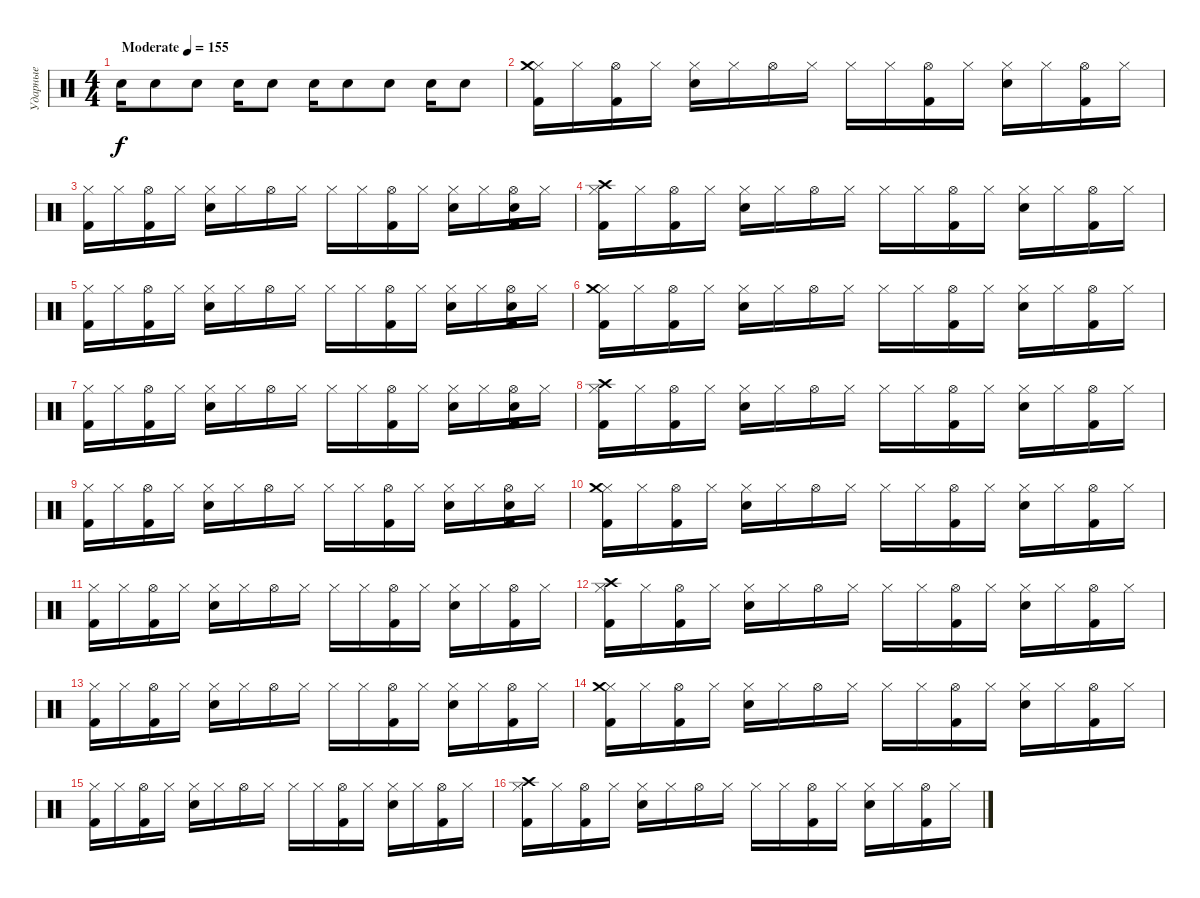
\track ("Ударные" "Ударные") {instrument percussion}
\staff {score}
\articulation defaults
\ts (4 4)
\tempo (155 "Moderate")
\clef neutral
\ks c "Electric Snare (hit)".16{dy f} "Electric Snare (hit)".8 "Electric Snare (hit)".8 "Electric Snare (hit)".16 "Electric Snare (hit)".8 "Electric Snare (hit)".16 "Electric Snare (hit)".8 "Electric Snare (hit)".8 "Electric Snare (hit)".16 "Electric Snare (hit)".8
|
("Hi-Hat (closed)" "Kick (hit) 2" "Crash medium (hit)").16 "Hi-Hat (closed)".16 ("Hi-Hat (open)" "Kick (hit) 2").16 "Hi-Hat (closed)".16 ("Hi-Hat (closed)" "Electric Snare (hit)").16 "Hi-Hat (closed)".16 "Hi-Hat (open)".16 "Hi-Hat (closed)".16 "Hi-Hat (closed)".16 "Hi-Hat (closed)".16 ("Hi-Hat (open)" "Kick (hit) 2").16 "Hi-Hat (closed)".16 ("Hi-Hat (closed)" "Electric Snare (hit)").16 "Hi-Hat (closed)".16 ("Hi-Hat (open)" "Kick (hit) 2").16 "Hi-Hat (closed)".16 |
("Hi-Hat (closed)" "Kick (hit) 2").16 "Hi-Hat (closed)".16 ("Hi-Hat (open)" "Kick (hit) 2").16 "Hi-Hat (closed)".16 ("Hi-Hat (closed)" "Electric Snare (hit)").16 "Hi-Hat (closed)".16 "Hi-Hat (open)".16 "Hi-Hat (closed)".16 "Hi-Hat (closed)".16 "Hi-Hat (closed)".16 ("Hi-Hat (open)" "Kick (hit) 2").16 "Hi-Hat (closed)".16 ("Hi-Hat (closed)" "Electric Snare (hit)").16 "Hi-Hat (closed)".16 ("Hi-Hat (open)" "Kick (hit) 2" "Electric Snare (hit)").16 "Hi-Hat (closed)".16 |
("Hi-Hat (closed)" "Kick (hit) 2" "Crash high (hit)").16 "Hi-Hat (closed)".16 ("Hi-Hat (open)" "Kick (hit) 2").16 "Hi-Hat (closed)".16 ("Hi-Hat (closed)" "Electric Snare (hit)").16 "Hi-Hat (closed)".16 "Hi-Hat (open)".16 "Hi-Hat (closed)".16 "Hi-Hat (closed)".16 "Hi-Hat (closed)".16 ("Hi-Hat (open)" "Kick (hit) 2").16 "Hi-Hat (closed)".16 ("Hi-Hat (closed)" "Electric Snare (hit)").16 "Hi-Hat (closed)".16 ("Hi-Hat (open)" "Kick (hit) 2").16 "Hi-Hat (closed)".16 |
("Hi-Hat (closed)" "Kick (hit) 2").16 "Hi-Hat (closed)".16 ("Hi-Hat (open)" "Kick (hit) 2").16 "Hi-Hat (closed)".16 ("Hi-Hat (closed)" "Electric Snare (hit)").16 "Hi-Hat (closed)".16 "Hi-Hat (open)".16 "Hi-Hat (closed)".16 "Hi-Hat (closed)".16 "Hi-Hat (closed)".16 ("Hi-Hat (open)" "Kick (hit) 2").16 "Hi-Hat (closed)".16 ("Hi-Hat (closed)" "Electric Snare (hit)").16 "Hi-Hat (closed)".16 ("Hi-Hat (open)" "Kick (hit) 2" "Electric Snare (hit)").16 "Hi-Hat (closed)".16 |
("Hi-Hat (closed)" "Kick (hit) 2" "Crash medium (hit)").16 "Hi-Hat (closed)".16 ("Hi-Hat (open)" "Kick (hit) 2").16 "Hi-Hat (closed)".16 ("Hi-Hat (closed)" "Electric Snare (hit)").16 "Hi-Hat (closed)".16 "Hi-Hat (open)".16 "Hi-Hat (closed)".16 "Hi-Hat (closed)".16 "Hi-Hat (closed)".16 ("Hi-Hat (open)" "Kick (hit) 2").16 "Hi-Hat (closed)".16 ("Hi-Hat (closed)" "Electric Snare (hit)").16 "Hi-Hat (closed)".16 ("Hi-Hat (open)" "Kick (hit) 2").16 "Hi-Hat (closed)".16 |
("Hi-Hat (closed)" "Kick (hit) 2").16 "Hi-Hat (closed)".16 ("Hi-Hat (open)" "Kick (hit) 2").16 "Hi-Hat (closed)".16 ("Hi-Hat (closed)" "Electric Snare (hit)").16 "Hi-Hat (closed)".16 "Hi-Hat (open)".16 "Hi-Hat (closed)".16 "Hi-Hat (closed)".16 "Hi-Hat (closed)".16 ("Hi-Hat (open)" "Kick (hit) 2").16 "Hi-Hat (closed)".16 ("Hi-Hat (closed)" "Electric Snare (hit)").16 "Hi-Hat (closed)".16 ("Hi-Hat (open)" "Kick (hit) 2" "Electric Snare (hit)").16 "Hi-Hat (closed)".16 |
("Hi-Hat (closed)" "Kick (hit) 2" "Crash high (hit)").16 "Hi-Hat (closed)".16 ("Hi-Hat (open)" "Kick (hit) 2").16 "Hi-Hat (closed)".16 ("Hi-Hat (closed)" "Electric Snare (hit)").16 "Hi-Hat (closed)".16 "Hi-Hat (open)".16 "Hi-Hat (closed)".16 "Hi-Hat (closed)".16 "Hi-Hat (closed)".16 ("Hi-Hat (open)" "Kick (hit) 2").16 "Hi-Hat (closed)".16 ("Hi-Hat (closed)" "Electric Snare (hit)").16 "Hi-Hat (closed)".16 ("Hi-Hat (open)" "Kick (hit) 2").16 "Hi-Hat (closed)".16 |
("Hi-Hat (closed)" "Kick (hit) 2").16 "Hi-Hat (closed)".16 ("Hi-Hat (open)" "Kick (hit) 2").16 "Hi-Hat (closed)".16 ("Hi-Hat (closed)" "Electric Snare (hit)").16 "Hi-Hat (closed)".16 "Hi-Hat (open)".16 "Hi-Hat (closed)".16 "Hi-Hat (closed)".16 "Hi-Hat (closed)".16 ("Hi-Hat (open)" "Kick (hit) 2").16 "Hi-Hat (closed)".16 ("Hi-Hat (closed)" "Electric Snare (hit)").16 "Hi-Hat (closed)".16 ("Hi-Hat (open)" "Kick (hit) 2" "Electric Snare (hit)").16 "Hi-Hat (closed)".16 |
("Hi-Hat (closed)" "Kick (hit) 2" "Crash medium (hit)").16 "Hi-Hat (closed)".16 ("Hi-Hat (open)" "Kick (hit) 2").16 "Hi-Hat (closed)".16 ("Hi-Hat (closed)" "Electric Snare (hit)").16 "Hi-Hat (closed)".16 "Hi-Hat (open)".16 "Hi-Hat (closed)".16 "Hi-Hat (closed)".16 "Hi-Hat (closed)".16 ("Hi-Hat (open)" "Kick (hit) 2").16 "Hi-Hat (closed)".16 ("Hi-Hat (closed)" "Electric Snare (hit)").16 "Hi-Hat (closed)".16 ("Hi-Hat (open)" "Kick (hit) 2").16 "Hi-Hat (closed)".16 |
("Hi-Hat (closed)" "Kick (hit) 2").16 "Hi-Hat (closed)".16 ("Hi-Hat (open)" "Kick (hit) 2").16 "Hi-Hat (closed)".16 ("Hi-Hat (closed)" "Electric Snare (hit)").16 "Hi-Hat (closed)".16 "Hi-Hat (open)".16 "Hi-Hat (closed)".16 "Hi-Hat (closed)".16 "Hi-Hat (closed)".16 ("Hi-Hat (open)" "Kick (hit) 2").16 "Hi-Hat (closed)".16 ("Hi-Hat (closed)" "Electric Snare (hit)").16 "Hi-Hat (closed)".16 ("Hi-Hat (open)" "Kick (hit) 2").16 "Hi-Hat (closed)".16 |
("Hi-Hat (closed)" "Kick (hit) 2" "Crash high (hit)").16 "Hi-Hat (closed)".16 ("Hi-Hat (open)" "Kick (hit) 2").16 "Hi-Hat (closed)".16 ("Hi-Hat (closed)" "Electric Snare (hit)").16 "Hi-Hat (closed)".16 "Hi-Hat (open)".16 "Hi-Hat (closed)".16 "Hi-Hat (closed)".16 "Hi-Hat (closed)".16 ("Hi-Hat (open)" "Kick (hit) 2").16 "Hi-Hat (closed)".16 ("Hi-Hat (closed)" "Electric Snare (hit)").16 "Hi-Hat (closed)".16 ("Hi-Hat (open)" "Kick (hit) 2").16 "Hi-Hat (closed)".16 |
("Hi-Hat (closed)" "Kick (hit) 2").16 "Hi-Hat (closed)".16 ("Hi-Hat (open)" "Kick (hit) 2").16 "Hi-Hat (closed)".16 ("Hi-Hat (closed)" "Electric Snare (hit)").16 "Hi-Hat (closed)".16 "Hi-Hat (open)".16 "Hi-Hat (closed)".16 "Hi-Hat (closed)".16 "Hi-Hat (closed)".16 ("Hi-Hat (open)" "Kick (hit) 2").16 "Hi-Hat (closed)".16 ("Hi-Hat (closed)" "Electric Snare (hit)").16 "Hi-Hat (closed)".16 ("Hi-Hat (open)" "Kick (hit) 2").16 "Hi-Hat (closed)".16 |
("Hi-Hat (closed)" "Kick (hit) 2" "Crash medium (hit)").16 "Hi-Hat (closed)".16 ("Hi-Hat (open)" "Kick (hit) 2").16 "Hi-Hat (closed)".16 ("Hi-Hat (closed)" "Electric Snare (hit)").16 "Hi-Hat (closed)".16 "Hi-Hat (open)".16 "Hi-Hat (closed)".16 "Hi-Hat (closed)".16 "Hi-Hat (closed)".16 ("Hi-Hat (open)" "Kick (hit) 2").16 "Hi-Hat (closed)".16 ("Hi-Hat (closed)" "Electric Snare (hit)").16 "Hi-Hat (closed)".16 ("Hi-Hat (open)" "Kick (hit) 2").16 "Hi-Hat (closed)".16 |
("Hi-Hat (closed)" "Kick (hit) 2").16 "Hi-Hat (closed)".16 ("Hi-Hat (open)" "Kick (hit) 2").16 "Hi-Hat (closed)".16 ("Hi-Hat (closed)" "Electric Snare (hit)").16 "Hi-Hat (closed)".16 "Hi-Hat (open)".16 "Hi-Hat (closed)".16 "Hi-Hat (closed)".16 "Hi-Hat (closed)".16 ("Hi-Hat (open)" "Kick (hit) 2").16 "Hi-Hat (closed)".16 ("Hi-Hat (closed)" "Electric Snare (hit)").16 "Hi-Hat (closed)".16 ("Hi-Hat (open)" "Kick (hit) 2").16 "Hi-Hat (closed)".16 |
("Hi-Hat (closed)" "Kick (hit) 2" "Crash high (hit)").16 "Hi-Hat (closed)".16 ("Hi-Hat (open)" "Kick (hit) 2").16 "Hi-Hat (closed)".16 ("Hi-Hat (closed)" "Electric Snare (hit)").16 "Hi-Hat (closed)".16 "Hi-Hat (open)".16 "Hi-Hat (closed)".16 "Hi-Hat (closed)".16 "Hi-Hat (closed)".16 ("Hi-Hat (open)" "Kick (hit) 2").16 "Hi-Hat (closed)".16 ("Hi-Hat (closed)" "Electric Snare (hit)").16 "Hi-Hat (closed)".16 ("Hi-Hat (open)" "Kick (hit) 2").16 "Hi-Hat (closed)".16
